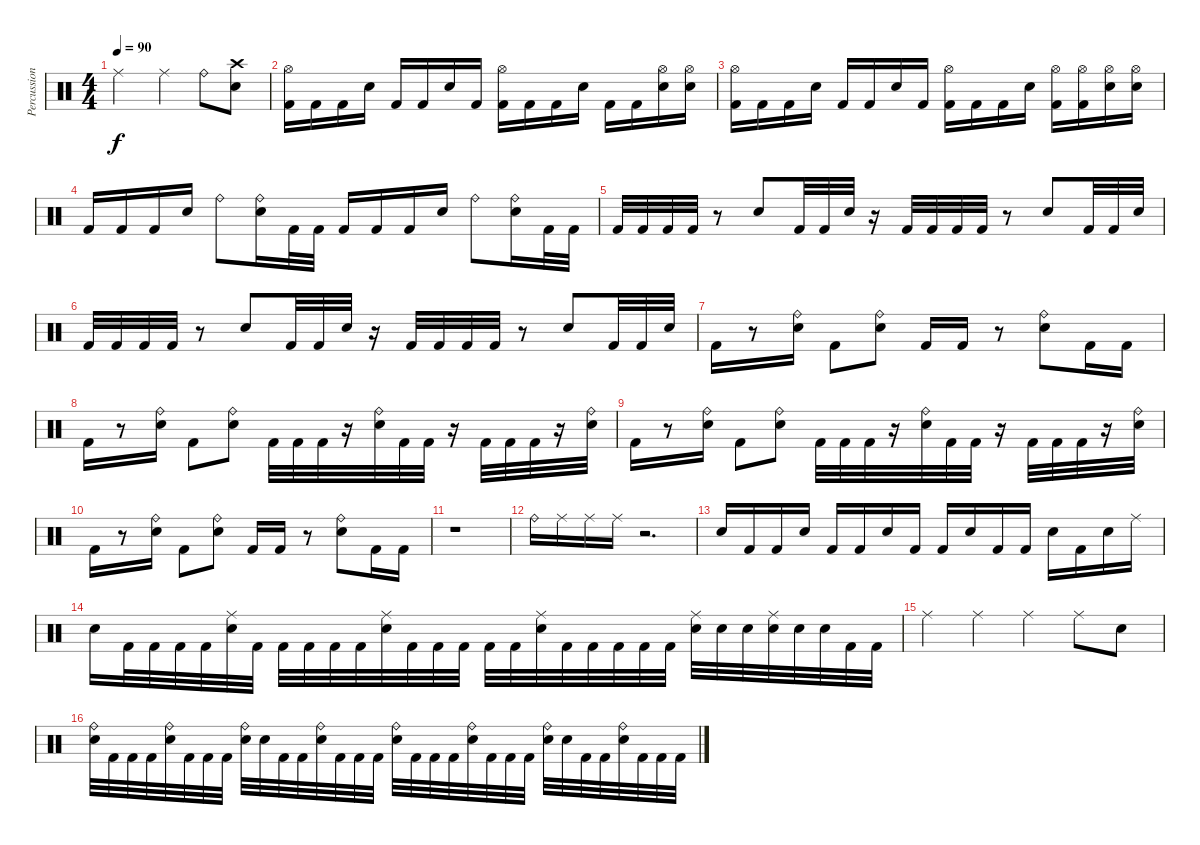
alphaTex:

\track ("Percussions" "Percussion") {instrument percussion}
\staff {score}
\articulation defaults
\ts (4 4)
\tempo 90
\clef neutral
\ks c "Ride (middle)".2{dy f} "Ride (middle)".4 "Ride (bell)".8
("Crash high (hit)" "Electric Snare (hit)").8 |
("Hi-Hat (open)" "Kick (hit) 2").16 "Kick (hit) 2".16 "Kick (hit) 2".16 "Electric Snare (hit)".16 "Kick (hit) 2".16 "Kick (hit) 2".16 "Electric Snare (hit)".16 "Kick (hit) 2".16 ("Hi-Hat (open)" "Kick (hit) 2").16 "Kick (hit) 2".16 "Kick (hit) 2".16 "Electric Snare (hit)".16 "Kick (hit) 2".16 "Kick (hit) 2".16 ("Hi-Hat (open)" "Electric Snare (hit)").16 ("Hi-Hat (open)" "Electric Snare (hit)").16 |
("Hi-Hat (open)" "Kick (hit) 2").16 "Kick (hit) 2".16 "Kick (hit) 2".16 "Electric Snare (hit)".16 "Kick (hit) 2".16 "Kick (hit) 2".16 "Electric Snare (hit)".16 "Kick (hit) 2".16 ("Hi-Hat (open)" "Kick (hit) 2").16 "Kick (hit) 2".16 "Kick (hit) 2".16 "Electric Snare (hit)".16 ("Hi-Hat (open)" "Kick (hit) 2").16 ("Hi-Hat (open)" "Kick (hit) 2").16 ("Hi-Hat (open)" "Electric Snare (hit)").16 ("Hi-Hat (open)" "Electric Snare (hit)").16 |
"Kick (hit) 2".16 "Kick (hit) 2".16 "Kick (hit) 2".16 "Electric Snare (hit)".16 "Ride (bell)".8 ("Ride (bell)" "Electric Snare (hit)").16 "Kick (hit) 2".32 "Kick (hit) 2".32 "Kick (hit) 2".16 "Kick (hit) 2".16 "Kick (hit) 2".16 "Electric Snare (hit)".16 "Ride (bell)".8 ("Ride (bell)" "Electric Snare (hit)").16 "Kick (hit) 2".32 "Kick (hit) 2".32 |
"Kick (hit) 2".32 "Kick (hit) 2".32 "Kick (hit) 2".32 "Kick (hit) 2".32 r.8 "Electric Snare (hit)".8 "Kick (hit) 2".32 "Kick (hit) 2".32 "Electric Snare (hit)".32 r.16 "Kick (hit) 2".32 "Kick (hit) 2".32 "Kick (hit) 2".32 "Kick (hit) 2".32 r.8 "Electric Snare (hit)".8 "Kick (hit) 2".32 "Kick (hit) 2".32 "Electric Snare (hit)".32 |
"Kick (hit) 2".32 "Kick (hit) 2".32 "Kick (hit) 2".32 "Kick (hit) 2".32 r.8 "Electric Snare (hit)".8 "Kick (hit) 2".32 "Kick (hit) 2".32 "Electric Snare (hit)".32 r.16 "Kick (hit) 2".32 "Kick (hit) 2".32 "Kick (hit) 2".32 "Kick (hit) 2".32 r.8 "Electric Snare (hit)".8 "Kick (hit) 2".32 "Kick (hit) 2".32 "Electric Snare (hit)".32 |
"Kick (hit) 2".16 r.8 ("Ride (bell)" "Electric Snare (hit)").16 "Kick (hit) 2".8 ("Ride (bell)" "Electric Snare (hit)").8 "Kick (hit) 2".16 "Kick (hit) 2".16 r.8 ("Ride (bell)" "Electric Snare (hit)").8 "Kick (hit) 2".16 "Kick (hit) 2".16 |
"Kick (hit) 2".16 r.8 ("Ride (bell)" "Electric Snare (hit)").16 "Kick (hit) 2".8 ("Ride (bell)" "Electric Snare (hit)").8 "Kick (hit) 2".32 "Kick (hit) 2".32 "Kick (hit) 2".32 r.16 ("Ride (bell)" "Electric Snare (hit)").32 "Kick (hit) 2".32 "Kick (hit) 2".32 r.16 "Kick (hit) 2".32 "Kick (hit) 2".32 "Kick (hit) 2".32 r.16 ("Ride (bell)" "Electric Snare (hit)").32 |
"Kick (hit) 2".16 r.8 ("Ride (bell)" "Electric Snare (hit)").16 "Kick (hit) 2".8 ("Ride (bell)" "Electric Snare (hit)").8 "Kick (hit) 2".32 "Kick (hit) 2".32 "Kick (hit) 2".32 r.16 ("Ride (bell)" "Electric Snare (hit)").32 "Kick (hit) 2".32 "Kick (hit) 2".32 r.16 "Kick (hit) 2".32 "Kick (hit) 2".32 "Kick (hit) 2".32 r.16 ("Ride (bell)" "Electric Snare (hit)").32 |
"Kick (hit) 2".16 r.8 ("Ride (bell)" "Electric Snare (hit)").16 "Kick (hit) 2".8 ("Ride (bell)" "Electric Snare (hit)").8 "Kick (hit) 2".16 "Kick (hit) 2".16 r.8 ("Ride (bell)" "Electric Snare (hit)").8 "Kick (hit) 2".16 "Kick (hit) 2".16 |
r.1 |
"Ride (bell)".16 "Ride (middle)".16 "Ride (middle)".16 "Ride (middle)".16 r.2{d} |
"Electric Snare (hit)".16 "Kick (hit) 2".16 "Kick (hit) 2".16 "Electric Snare (hit)".16 "Kick (hit) 2".16 "Kick (hit) 2".16 "Electric Snare (hit)".16 "Kick (hit) 2".16 "Kick (hit) 2".16 "Electric Snare (hit)".16 "Kick (hit) 2".16 "Kick (hit) 2".16 "Electric Snare (hit)".16 "Kick (hit) 2".16 "Electric Snare (hit)".16 "Ride (middle)".16 |
"Electric Snare (hit)".16 "Kick (hit) 2".32 "Kick (hit) 2".32 "Kick (hit) 2".32 "Kick (hit) 2".32 ("Ride (middle)" "Electric Snare (hit)").32 "Kick (hit) 2".32 "Kick (hit) 2".32 "Kick (hit) 2".32 "Kick (hit) 2".32 "Kick (hit) 2".32 ("Ride (middle)" "Electric Snare (hit)").32 "Kick (hit) 2".32 "Kick (hit) 2".32 "Kick (hit) 2".32 "Kick (hit) 2".32 "Kick (hit) 2".32 ("Ride (middle)" "Electric Snare (hit)").32 "Kick (hit) 2".32 "Kick (hit) 2".32 "Kick (hit) 2".32 "Kick (hit) 2".32 "Kick (hit) 2".32 ("Ride (middle)" "Electric Snare (hit)").32 "Electric Snare (hit)".32 "Electric Snare (hit)".32 ("Ride (middle)" "Electric Snare (hit)").32 "Electric Snare (hit)".32 "Electric Snare (hit)".32 "Kick (hit) 2".32 "Kick (hit) 2".32 |
"Ride (middle)".4 "Ride (middle)".4 "Ride (middle)".4 "Ride (middle)".8 "Electric Snare (hit)".8 |
("Ride (bell)" "Electric Snare (hit)").32 "Kick (hit) 2".32 "Kick (hit) 2".32 "Kick (hit) 2".32 ("Ride (bell)" "Electric Snare (hit)").32 "Kick (hit) 2".32 "Kick (hit) 2".32 "Kick (hit) 2".32 ("Ride (bell)" "Electric Snare (hit)").32 "Electric Snare (hit)".32 "Kick (hit) 2".32 "Kick (hit) 2".32 ("Ride (bell)" "Electric Snare (hit)").32 "Kick (hit) 2".32 "Kick (hit) 2".32 "Kick (hit) 2".32 ("Ride (bell)" "Electric Snare (hit)").32 "Kick (hit) 2".32 "Kick (hit) 2".32 "Kick (hit) 2".32 ("Ride (bell)" "Electric Snare (hit)").32 "Kick (hit) 2".32 "Kick (hit) 2".32 "Kick (hit) 2".32 ("Ride (bell)" "Electric Snare (hit)").32 "Electric Snare (hit)".32 "Kick (hit) 2".32 "Kick (hit) 2".32 ("Ride (bell)" "Electric Snare (hit)").32 "Kick (hit) 2".32 "Kick (hit) 2".32 "Kick (hit) 2".32
